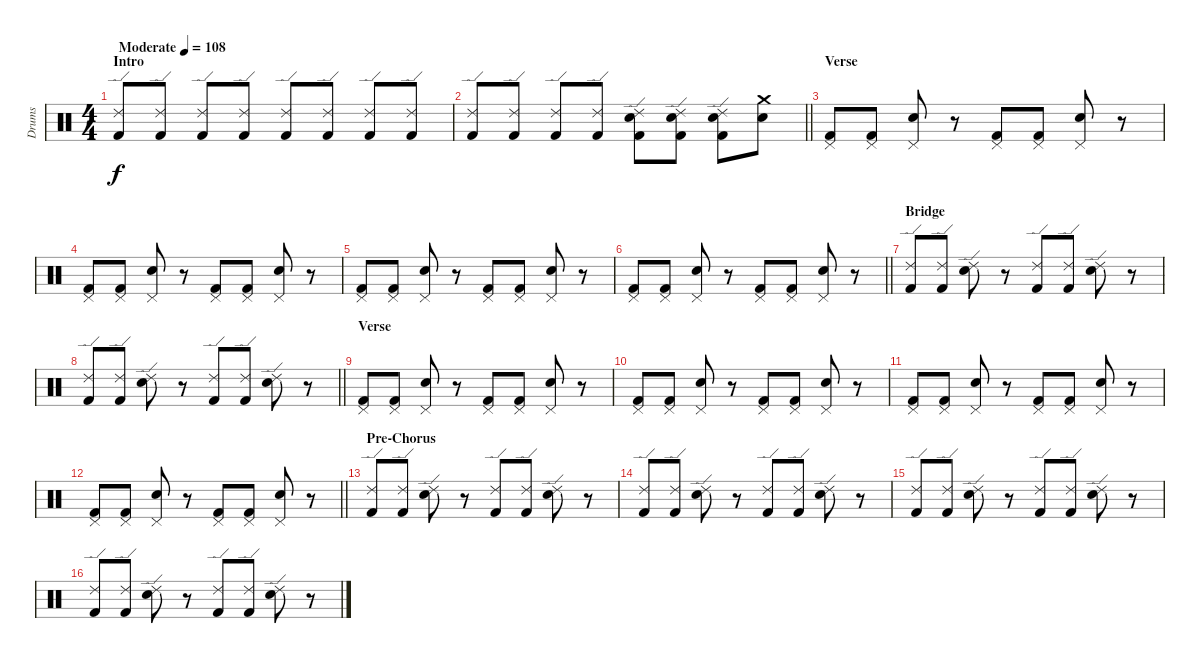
\track ("Drums" "Drums") {instrument percussion}
\staff {score}
\articulation defaults
\ts (4 4)
\section ("" "Intro")
\tempo (108 "Moderate")
\clef neutral
\ks c
("Ride (edge) 2" "Kick (hit) 2").8{dy f} ("Ride (edge) 2" "Kick (hit) 2").8 ("Ride (edge) 2" "Kick (hit) 2").8 ("Ride (edge) 2" "Kick (hit) 2").8 ("Ride (edge) 2" "Kick (hit) 2").8 ("Ride (edge) 2" "Kick (hit) 2").8 ("Ride (edge) 2" "Kick (hit) 2").8 ("Ride (edge) 2" "Kick (hit) 2").8 |
\barLineRight lightlight
("Ride (edge) 2" "Kick (hit) 2").8 ("Ride (edge) 2" "Kick (hit) 2").8 ("Ride (edge) 2" "Kick (hit) 2").8 ("Ride (edge) 2" "Kick (hit) 2").8 ("Ride (edge) 2" "Snare (hit) 2" "Kick (hit) 2").8 ("Ride (edge) 2" "Snare (hit) 2" "Kick (hit) 2").8 ("Ride (edge) 2" "Snare (hit) 2" "Kick (hit) 2").8 ("Crash medium (hit)" "Snare (hit) 2").8 |
\section ("" "Verse")
("Pedal Hi-Hat (hit)" "Kick (hit) 2").8 ("Pedal Hi-Hat (hit)" "Kick (hit) 2").8 ("Pedal Hi-Hat (hit)" "Snare (hit) 2").8 r.8 ("Pedal Hi-Hat (hit)" "Kick (hit) 2").8 ("Pedal Hi-Hat (hit)" "Kick (hit) 2").8 ("Pedal Hi-Hat (hit)" "Snare (hit) 2").8 r.8 |
("Pedal Hi-Hat (hit)" "Kick (hit) 2").8 ("Pedal Hi-Hat (hit)" "Kick (hit) 2").8 ("Pedal Hi-Hat (hit)" "Snare (hit) 2").8 r.8 ("Pedal Hi-Hat (hit)" "Kick (hit) 2").8 ("Pedal Hi-Hat (hit)" "Kick (hit) 2").8 ("Pedal Hi-Hat (hit)" "Snare (hit) 2").8 r.8 |
("Pedal Hi-Hat (hit)" "Kick (hit) 2").8 ("Pedal Hi-Hat (hit)" "Kick (hit) 2").8 ("Pedal Hi-Hat (hit)" "Snare (hit) 2").8 r.8 ("Pedal Hi-Hat (hit)" "Kick (hit) 2").8 ("Pedal Hi-Hat (hit)" "Kick (hit) 2").8 ("Pedal Hi-Hat (hit)" "Snare (hit) 2").8 r.8 |
\barLineRight lightlight
("Pedal Hi-Hat (hit)" "Kick (hit) 2").8 ("Pedal Hi-Hat (hit)" "Kick (hit) 2").8 ("Pedal Hi-Hat (hit)" "Snare (hit) 2").8 r.8 ("Pedal Hi-Hat (hit)" "Kick (hit) 2").8 ("Pedal Hi-Hat (hit)" "Kick (hit) 2").8 ("Pedal Hi-Hat (hit)" "Snare (hit) 2").8 r.8 |
\section ("" "Bridge")
("Ride (edge) 2" "Kick (hit) 2").8 ("Ride (edge) 2" "Kick (hit) 2").8 ("Ride (edge) 2" "Snare (hit) 2").8 r.8 ("Ride (edge) 2" "Kick (hit) 2").8 ("Ride (edge) 2" "Kick (hit) 2").8 ("Ride (edge) 2" "Snare (hit) 2").8 r.8 |
\barLineRight lightlight
("Ride (edge) 2" "Kick (hit) 2").8 ("Ride (edge) 2" "Kick (hit) 2").8 ("Ride (edge) 2" "Snare (hit) 2").8 r.8 ("Ride (edge) 2" "Kick (hit) 2").8 ("Ride (edge) 2" "Kick (hit) 2").8 ("Ride (edge) 2" "Snare (hit) 2").8 r.8 |
\section ("" "Verse")
("Pedal Hi-Hat (hit)" "Kick (hit) 2").8 ("Pedal Hi-Hat (hit)" "Kick (hit) 2").8 ("Pedal Hi-Hat (hit)" "Snare (hit) 2").8 r.8 ("Pedal Hi-Hat (hit)" "Kick (hit) 2").8 ("Pedal Hi-Hat (hit)" "Kick (hit) 2").8 ("Pedal Hi-Hat (hit)" "Snare (hit) 2").8 r.8 |
("Pedal Hi-Hat (hit)" "Kick (hit) 2").8 ("Pedal Hi-Hat (hit)" "Kick (hit) 2").8 ("Pedal Hi-Hat (hit)" "Snare (hit) 2").8 r.8 ("Pedal Hi-Hat (hit)" "Kick (hit) 2").8 ("Pedal Hi-Hat (hit)" "Kick (hit) 2").8 ("Pedal Hi-Hat (hit)" "Snare (hit) 2").8 r.8 |
("Pedal Hi-Hat (hit)" "Kick (hit) 2").8 ("Pedal Hi-Hat (hit)" "Kick (hit) 2").8 ("Pedal Hi-Hat (hit)" "Snare (hit) 2").8 r.8 ("Pedal Hi-Hat (hit)" "Kick (hit) 2").8 ("Pedal Hi-Hat (hit)" "Kick (hit) 2").8 ("Pedal Hi-Hat (hit)" "Snare (hit) 2").8 r.8 |
\barLineRight lightlight
("Pedal Hi-Hat (hit)" "Kick (hit) 2").8 ("Pedal Hi-Hat (hit)" "Kick (hit) 2").8 ("Pedal Hi-Hat (hit)" "Snare (hit) 2").8 r.8 ("Pedal Hi-Hat (hit)" "Kick (hit) 2").8 ("Pedal Hi-Hat (hit)" "Kick (hit) 2").8 ("Pedal Hi-Hat (hit)" "Snare (hit) 2").8 r.8 |
\section ("" "Pre-Chorus")
("Ride (edge) 2" "Kick (hit) 2").8 ("Ride (edge) 2" "Kick (hit) 2").8 ("Ride (edge) 2" "Snare (hit) 2").8 r.8 ("Ride (edge) 2" "Kick (hit) 2").8 ("Ride (edge) 2" "Kick (hit) 2").8 ("Ride (edge) 2" "Snare (hit) 2").8 r.8 |
("Ride (edge) 2" "Kick (hit) 2").8 ("Ride (edge) 2" "Kick (hit) 2").8 ("Ride (edge) 2" "Snare (hit) 2").8 r.8 ("Ride (edge) 2" "Kick (hit) 2").8 ("Ride (edge) 2" "Kick (hit) 2").8 ("Ride (edge) 2" "Snare (hit) 2").8 r.8 |
("Ride (edge) 2" "Kick (hit) 2").8 ("Ride (edge) 2" "Kick (hit) 2").8 ("Ride (edge) 2" "Snare (hit) 2").8 r.8 ("Ride (edge) 2" "Kick (hit) 2").8 ("Ride (edge) 2" "Kick (hit) 2").8 ("Ride (edge) 2" "Snare (hit) 2").8 r.8 |
("Ride (edge) 2" "Kick (hit) 2").8 ("Ride (edge) 2" "Kick (hit) 2").8 ("Ride (edge) 2" "Snare (hit) 2").8 r.8 ("Ride (edge) 2" "Kick (hit) 2").8 ("Ride (edge) 2" "Kick (hit) 2").8 ("Ride (edge) 2" "Snare (hit) 2").8 r.8
